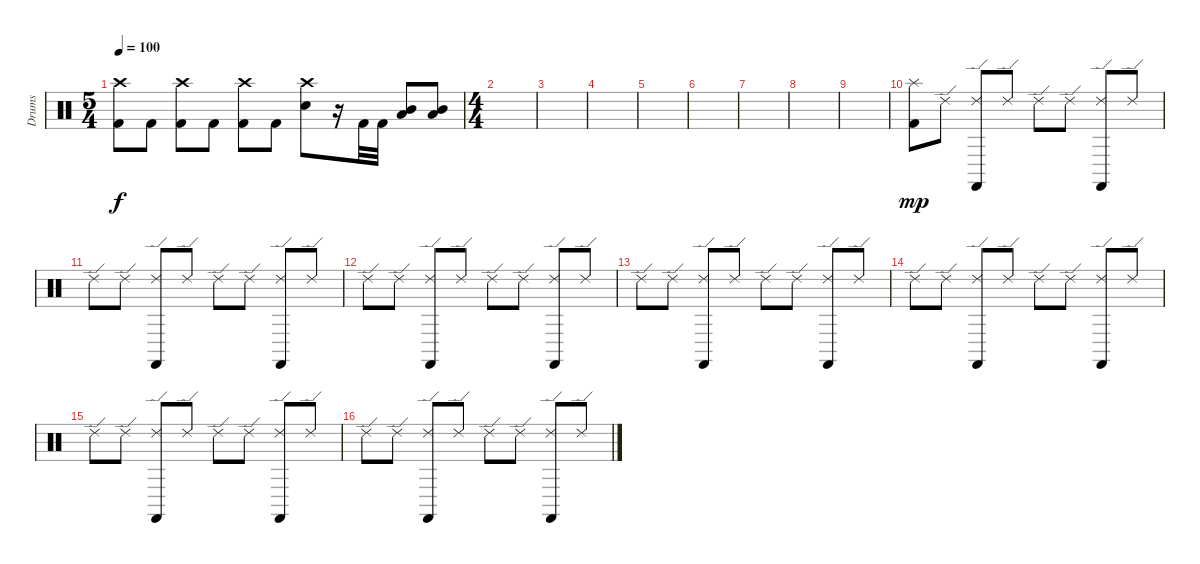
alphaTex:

\track ("Drums" "Drums") {instrument percussion}
\staff {score}
\articulation defaults
\ts (5 4)
\tempo 100
\clef neutral
\ks c
("Crash high (hit)" "Kick (hit) 2").8{dy f} "Kick (hit) 2".8 ("Crash high (hit)" "Kick (hit) 2").8 "Kick (hit) 2".8 ("Crash high (hit)" "Kick (hit) 2").8 "Kick (hit) 2".8 ("Crash high (hit)" "Snare (hit) 2").8 r.16 "Kick (hit) 2".32 "Kick (hit) 2".32 ("Mid Tom (hit)" "Low Tom (hit)").8 ("Mid Tom (hit)" "Low Tom (hit)").8 |
\ts (4 4)
|
|
|
|
|
|
|
|
("Splash (hit)" "Kick (hit) 2").8{dy mp} "Ride (edge) 2".8 ("Ride (edge) 2" "Castanets (hit)").8 "Ride (edge) 2".8 "Ride (edge) 2".8 "Ride (edge) 2".8 ("Ride (edge) 2" "Castanets (hit)").8 "Ride (edge) 2".8 |
"Ride (edge) 2".8 "Ride (edge) 2".8 ("Ride (edge) 2" "Castanets (hit)").8 "Ride (edge) 2".8 "Ride (edge) 2".8 "Ride (edge) 2".8 ("Ride (edge) 2" "Castanets (hit)").8 "Ride (edge) 2".8 |
"Ride (edge) 2".8 "Ride (edge) 2".8 ("Ride (edge) 2" "Castanets (hit)").8 "Ride (edge) 2".8 "Ride (edge) 2".8 "Ride (edge) 2".8 ("Ride (edge) 2" "Castanets (hit)").8 "Ride (edge) 2".8 |
"Ride (edge) 2".8 "Ride (edge) 2".8 ("Ride (edge) 2" "Castanets (hit)").8 "Ride (edge) 2".8 "Ride (edge) 2".8 "Ride (edge) 2".8 ("Ride (edge) 2" "Castanets (hit)").8 "Ride (edge) 2".8 |
"Ride (edge) 2".8 "Ride (edge) 2".8 ("Ride (edge) 2" "Castanets (hit)").8 "Ride (edge) 2".8 "Ride (edge) 2".8 "Ride (edge) 2".8 ("Ride (edge) 2" "Castanets (hit)").8 "Ride (edge) 2".8 |
"Ride (edge) 2".8 "Ride (edge) 2".8 ("Ride (edge) 2" "Castanets (hit)").8 "Ride (edge) 2".8 "Ride (edge) 2".8 "Ride (edge) 2".8 ("Ride (edge) 2" "Castanets (hit)").8 "Ride (edge) 2".8 |
"Ride (edge) 2".8 "Ride (edge) 2".8 ("Ride (edge) 2" "Castanets (hit)").8 "Ride (edge) 2".8 "Ride (edge) 2".8 "Ride (edge) 2".8 ("Ride (edge) 2" "Castanets (hit)").8 "Ride (edge) 2".8
